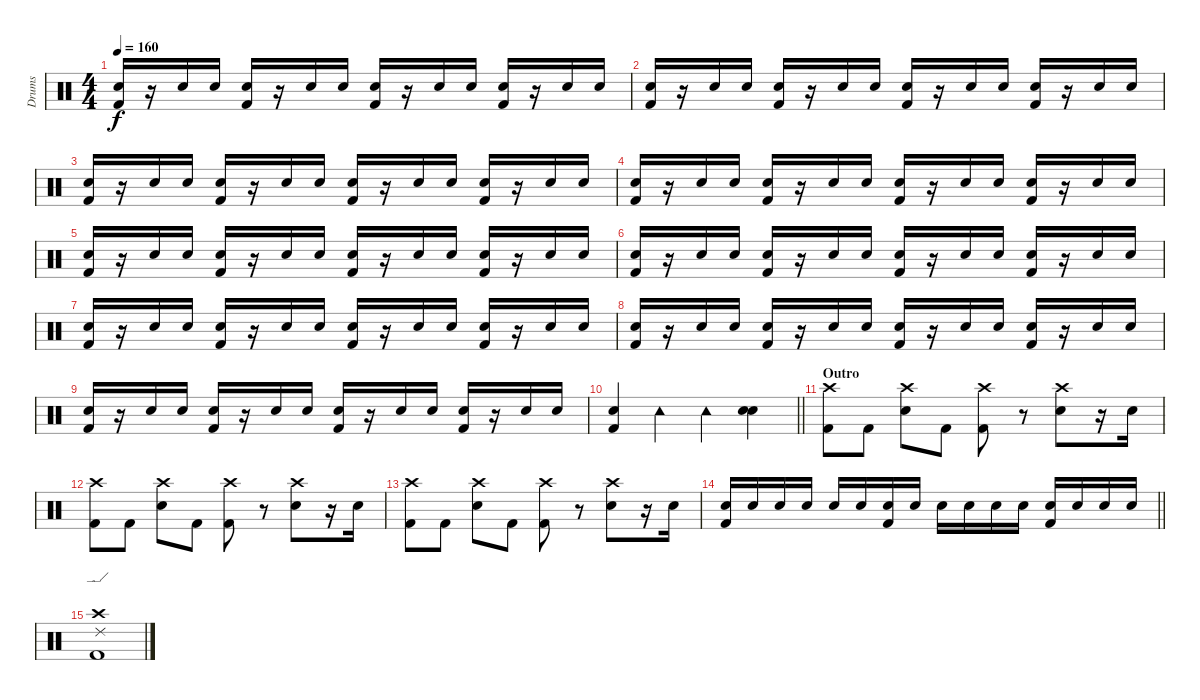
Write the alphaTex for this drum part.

\track ("Drums" "Drums") {instrument percussion}
\staff {score}
\articulation defaults
\ts (4 4)
\tempo 160
\clef neutral
\ks c
("Snare (hit) 2" "Kick (hit) 2").16{dy f} r.16 "Snare (hit) 2".16 "Snare (hit) 2".16 ("Snare (hit) 2" "Kick (hit) 2").16 r.16 "Snare (hit) 2".16 "Snare (hit) 2".16 ("Snare (hit) 2" "Kick (hit) 2").16 r.16 "Snare (hit) 2".16 "Snare (hit) 2".16 ("Snare (hit) 2" "Kick (hit) 2").16 r.16 "Snare (hit) 2".16 "Snare (hit) 2".16 |
("Snare (hit) 2" "Kick (hit) 2").16 r.16 "Snare (hit) 2".16 "Snare (hit) 2".16 ("Snare (hit) 2" "Kick (hit) 2").16 r.16 "Snare (hit) 2".16 "Snare (hit) 2".16 ("Snare (hit) 2" "Kick (hit) 2").16 r.16 "Snare (hit) 2".16 "Snare (hit) 2".16 ("Snare (hit) 2" "Kick (hit) 2").16 r.16 "Snare (hit) 2".16 "Snare (hit) 2".16 |
("Snare (hit) 2" "Kick (hit) 2").16 r.16 "Snare (hit) 2".16 "Snare (hit) 2".16 ("Snare (hit) 2" "Kick (hit) 2").16 r.16 "Snare (hit) 2".16 "Snare (hit) 2".16 ("Snare (hit) 2" "Kick (hit) 2").16 r.16 "Snare (hit) 2".16 "Snare (hit) 2".16 ("Snare (hit) 2" "Kick (hit) 2").16 r.16 "Snare (hit) 2".16 "Snare (hit) 2".16 |
("Snare (hit) 2" "Kick (hit) 2").16 r.16 "Snare (hit) 2".16 "Snare (hit) 2".16 ("Snare (hit) 2" "Kick (hit) 2").16 r.16 "Snare (hit) 2".16 "Snare (hit) 2".16 ("Snare (hit) 2" "Kick (hit) 2").16 r.16 "Snare (hit) 2".16 "Snare (hit) 2".16 ("Snare (hit) 2" "Kick (hit) 2").16 r.16 "Snare (hit) 2".16 "Snare (hit) 2".16 |
("Snare (hit) 2" "Kick (hit) 2").16 r.16 "Snare (hit) 2".16 "Snare (hit) 2".16 ("Snare (hit) 2" "Kick (hit) 2").16 r.16 "Snare (hit) 2".16 "Snare (hit) 2".16 ("Snare (hit) 2" "Kick (hit) 2").16 r.16 "Snare (hit) 2".16 "Snare (hit) 2".16 ("Snare (hit) 2" "Kick (hit) 2").16 r.16 "Snare (hit) 2".16 "Snare (hit) 2".16 |
("Snare (hit) 2" "Kick (hit) 2").16 r.16 "Snare (hit) 2".16 "Snare (hit) 2".16 ("Snare (hit) 2" "Kick (hit) 2").16 r.16 "Snare (hit) 2".16 "Snare (hit) 2".16 ("Snare (hit) 2" "Kick (hit) 2").16 r.16 "Snare (hit) 2".16 "Snare (hit) 2".16 ("Snare (hit) 2" "Kick (hit) 2").16 r.16 "Snare (hit) 2".16 "Snare (hit) 2".16 |
("Snare (hit) 2" "Kick (hit) 2").16 r.16 "Snare (hit) 2".16 "Snare (hit) 2".16 ("Snare (hit) 2" "Kick (hit) 2").16 r.16 "Snare (hit) 2".16 "Snare (hit) 2".16 ("Snare (hit) 2" "Kick (hit) 2").16 r.16 "Snare (hit) 2".16 "Snare (hit) 2".16 ("Snare (hit) 2" "Kick (hit) 2").16 r.16 "Snare (hit) 2".16 "Snare (hit) 2".16 |
("Snare (hit) 2" "Kick (hit) 2").16 r.16 "Snare (hit) 2".16 "Snare (hit) 2".16 ("Snare (hit) 2" "Kick (hit) 2").16 r.16 "Snare (hit) 2".16 "Snare (hit) 2".16 ("Snare (hit) 2" "Kick (hit) 2").16 r.16 "Snare (hit) 2".16 "Snare (hit) 2".16 ("Snare (hit) 2" "Kick (hit) 2").16 r.16 "Snare (hit) 2".16 "Snare (hit) 2".16 |
("Snare (hit) 2" "Kick (hit) 2").16 r.16 "Snare (hit) 2".16 "Snare (hit) 2".16 ("Snare (hit) 2" "Kick (hit) 2").16 r.16 "Snare (hit) 2".16 "Snare (hit) 2".16 ("Snare (hit) 2" "Kick (hit) 2").16 r.16 "Snare (hit) 2".16 "Snare (hit) 2".16 ("Snare (hit) 2" "Kick (hit) 2").16 r.16 "Snare (hit) 2".16 "Snare (hit) 2".16 |
\barLineRight lightlight
("Snare (hit) 2" "Kick (hit) 2").4 "Tambourine (hit)".4 "Tambourine (hit)".4 ("Snare (hit) 2" "Snare (hit) 2").4 |
\section ("" "Outro")
("Crash high (hit)" "Kick (hit) 2").8 "Kick (hit) 2".8 ("Crash high (hit)" "Snare (hit) 2").8 "Kick (hit) 2".8 ("Crash high (hit)" "Kick (hit) 2").8 r.8 ("Crash high (hit)" "Snare (hit) 2").8 r.16 "Snare (hit) 2".16 |
("Crash high (hit)" "Kick (hit) 2").8 "Kick (hit) 2".8 ("Crash high (hit)" "Snare (hit) 2").8 "Kick (hit) 2".8 ("Crash high (hit)" "Kick (hit) 2").8 r.8 ("Crash high (hit)" "Snare (hit) 2").8 r.16 "Snare (hit) 2".16 |
("Crash high (hit)" "Kick (hit) 2").8 "Kick (hit) 2".8 ("Crash high (hit)" "Snare (hit) 2").8 "Kick (hit) 2".8 ("Crash high (hit)" "Kick (hit) 2").8 r.8 ("Crash high (hit)" "Snare (hit) 2").8 r.16 "Snare (hit) 2".16 |
\barLineRight lightlight
("Snare (hit) 2" "Kick (hit) 2").16 "Snare (hit) 2".16 "Snare (hit) 2".16 "Snare (hit) 2".16 "Snare (hit) 2".16 "Snare (hit) 2".16 ("Snare (hit) 2" "Kick (hit) 2").16 "Snare (hit) 2".16 "Snare (hit) 2".16 "Snare (hit) 2".16 "Snare (hit) 2".16 "Snare (hit) 2".16 ("Snare (hit) 2" "Kick (hit) 2").16 "Snare (hit) 2".16 "Snare (hit) 2".16 "Snare (hit) 2".16 |
("Ride (edge) 2" "Crash high (hit)" "Kick (hit) 2").1
